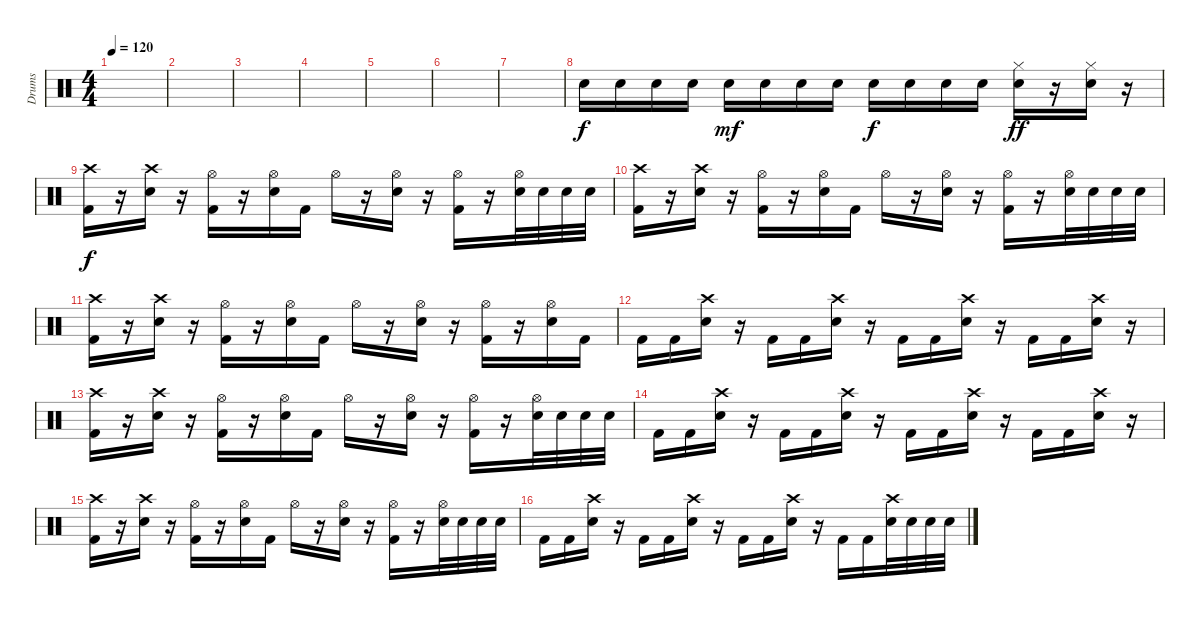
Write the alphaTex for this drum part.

\track ("Drums" "Drums") {instrument percussion}
\staff {score}
\articulation defaults
\ts (4 4)
\tempo 120
\clef neutral
\ks c
|
|
|
|
|
|
|
"Electric Snare (hit)".16 "Electric Snare (hit)".16 "Electric Snare (hit)".16 "Electric Snare (hit)".16 "Electric Snare (hit)".16{dy mf} "Electric Snare (hit)".16 "Electric Snare (hit)".16 "Electric Snare (hit)".16 "Electric Snare (hit)".16{dy f} "Electric Snare (hit)".16 "Electric Snare (hit)".16 "Electric Snare (hit)".16 ("Hi-Hat (closed)" "Electric Snare (hit)").16{dy ff} r.16 ("Hi-Hat (closed)" "Electric Snare (hit)").16 r.16 |
("Crash high (hit)" "Kick (hit) 2").16{dy f} r.16 ("Crash high (hit)" "Electric Snare (hit)").16 r.16 ("Hi-Hat (open)" "Kick (hit) 2").16 r.16 ("Hi-Hat (open)" "Electric Snare (hit)").16 "Kick (hit) 2".16 "Hi-Hat (open)".16 r.16 ("Hi-Hat (open)" "Electric Snare (hit)").16 r.16 ("Hi-Hat (open)" "Kick (hit) 2").16 r.16 ("Hi-Hat (open)" "Electric Snare (hit)").32 "Electric Snare (hit)".32 "Electric Snare (hit)".32 "Electric Snare (hit)".32 |
("Crash high (hit)" "Kick (hit) 2").16 r.16 ("Crash high (hit)" "Electric Snare (hit)").16 r.16 ("Hi-Hat (open)" "Kick (hit) 2").16 r.16 ("Hi-Hat (open)" "Electric Snare (hit)").16 "Kick (hit) 2".16 "Hi-Hat (open)".16 r.16 ("Hi-Hat (open)" "Electric Snare (hit)").16 r.16 ("Hi-Hat (open)" "Kick (hit) 2").16 r.16 ("Hi-Hat (open)" "Electric Snare (hit)").32 "Electric Snare (hit)".32 "Electric Snare (hit)".32 "Electric Snare (hit)".32 |
("Crash high (hit)" "Kick (hit) 2").16 r.16 ("Crash high (hit)" "Electric Snare (hit)").16 r.16 ("Hi-Hat (open)" "Kick (hit) 2").16 r.16 ("Hi-Hat (open)" "Electric Snare (hit)").16 "Kick (hit) 2".16 "Hi-Hat (open)".16 r.16 ("Hi-Hat (open)" "Electric Snare (hit)").16 r.16 ("Hi-Hat (open)" "Kick (hit) 2").16 r.16 ("Hi-Hat (open)" "Electric Snare (hit)").16 "Kick (hit) 2".16 |
"Kick (hit) 2".16 "Kick (hit) 2".16 ("Crash high (hit)" "Electric Snare (hit)").16 r.16 "Kick (hit) 2".16 "Kick (hit) 2".16 ("Crash high (hit)" "Electric Snare (hit)").16 r.16 "Kick (hit) 2".16 "Kick (hit) 2".16 ("Crash high (hit)" "Electric Snare (hit)").16 r.16 "Kick (hit) 2".16 "Kick (hit) 2".16 ("Crash high (hit)" "Electric Snare (hit)").16 r.16 |
("Crash high (hit)" "Kick (hit) 2").16 r.16 ("Crash high (hit)" "Electric Snare (hit)").16 r.16 ("Hi-Hat (open)" "Kick (hit) 2").16 r.16 ("Hi-Hat (open)" "Electric Snare (hit)").16 "Kick (hit) 2".16 "Hi-Hat (open)".16 r.16 ("Hi-Hat (open)" "Electric Snare (hit)").16 r.16 ("Hi-Hat (open)" "Kick (hit) 2").16 r.16 ("Hi-Hat (open)" "Electric Snare (hit)").32 "Electric Snare (hit)".32 "Electric Snare (hit)".32 "Electric Snare (hit)".32 |
"Kick (hit) 2".16 "Kick (hit) 2".16 ("Crash high (hit)" "Electric Snare (hit)").16 r.16 "Kick (hit) 2".16 "Kick (hit) 2".16 ("Crash high (hit)" "Electric Snare (hit)").16 r.16 "Kick (hit) 2".16 "Kick (hit) 2".16 ("Crash high (hit)" "Electric Snare (hit)").16 r.16 "Kick (hit) 2".16 "Kick (hit) 2".16 ("Crash high (hit)" "Electric Snare (hit)").16 r.16 |
("Crash high (hit)" "Kick (hit) 2").16 r.16 ("Crash high (hit)" "Electric Snare (hit)").16 r.16 ("Hi-Hat (open)" "Kick (hit) 2").16 r.16 ("Hi-Hat (open)" "Electric Snare (hit)").16 "Kick (hit) 2".16 "Hi-Hat (open)".16 r.16 ("Hi-Hat (open)" "Electric Snare (hit)").16 r.16 ("Hi-Hat (open)" "Kick (hit) 2").16 r.16 ("Hi-Hat (open)" "Electric Snare (hit)").32 "Electric Snare (hit)".32 "Electric Snare (hit)".32 "Electric Snare (hit)".32 |
"Kick (hit) 2".16 "Kick (hit) 2".16 ("Crash high (hit)" "Electric Snare (hit)").16 r.16 "Kick (hit) 2".16 "Kick (hit) 2".16 ("Crash high (hit)" "Electric Snare (hit)").16 r.16 "Kick (hit) 2".16 "Kick (hit) 2".16 ("Crash high (hit)" "Electric Snare (hit)").16 r.16 "Kick (hit) 2".16 "Kick (hit) 2".16 ("Crash high (hit)" "Electric Snare (hit)").32 "Electric Snare (hit)".32 "Electric Snare (hit)".32 "Electric Snare (hit)".32
